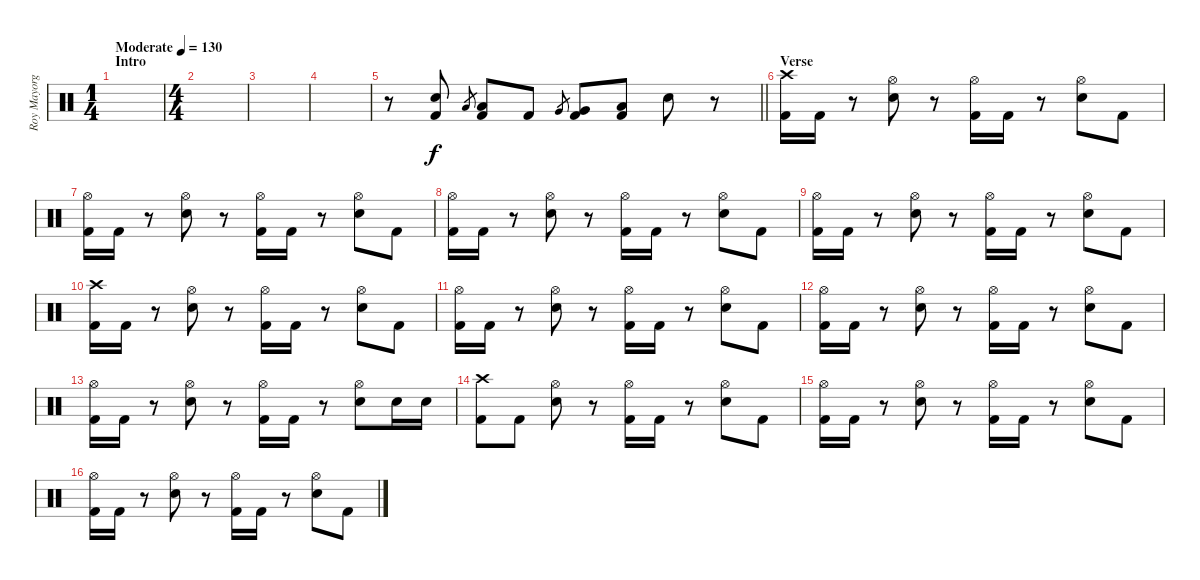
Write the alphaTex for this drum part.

\track ("Roy Mayorga (Drums)" "Roy Mayorg") {instrument percussion}
\staff {score}
\articulation defaults
\ts (1 4)
\section ("" "Intro")
\tempo (130 "Moderate")
\clef neutral
\ks c
|
\ts (4 4)
|
|
|
\barLineRight lightlight
r.8 ("Electric Snare (hit)" "Kick (hit) 2").8 "Low Tom (hit)".8{gr} ("Low Tom (hit)" "Kick (hit) 2").8 "Kick (hit) 2".8 "Very Low Tom (hit)".8{gr} ("Very Low Tom (hit)" "Kick (hit) 2").8 ("Low Floor Tom (hit)" "Kick (hit) 2").8 "Electric Snare (hit)".8 r.8 |
\section ("" "Verse")
("Crash high (hit)" "Kick (hit) 2").16 "Kick (hit) 2".16 r.8 ("Hi-Hat (open)" "Electric Snare (hit)").8 r.8 ("Hi-Hat (open)" "Kick (hit) 2").16 "Kick (hit) 2".16 r.8 ("Hi-Hat (open)" "Electric Snare (hit)").8 "Kick (hit) 2".8 |
("Hi-Hat (open)" "Kick (hit) 2").16 "Kick (hit) 2".16 r.8 ("Hi-Hat (open)" "Electric Snare (hit)").8 r.8 ("Hi-Hat (open)" "Kick (hit) 2").16 "Kick (hit) 2".16 r.8 ("Hi-Hat (open)" "Electric Snare (hit)").8 "Kick (hit) 2".8 |
("Hi-Hat (open)" "Kick (hit) 2").16 "Kick (hit) 2".16 r.8 ("Hi-Hat (open)" "Electric Snare (hit)").8 r.8 ("Hi-Hat (open)" "Kick (hit) 2").16 "Kick (hit) 2".16 r.8 ("Hi-Hat (open)" "Electric Snare (hit)").8 "Kick (hit) 2".8 |
("Hi-Hat (open)" "Kick (hit) 2").16 "Kick (hit) 2".16 r.8 ("Hi-Hat (open)" "Electric Snare (hit)").8 r.8 ("Hi-Hat (open)" "Kick (hit) 2").16 "Kick (hit) 2".16 r.8 ("Hi-Hat (open)" "Electric Snare (hit)").8 "Kick (hit) 2".8 |
("Crash high (hit)" "Kick (hit) 2").16 "Kick (hit) 2".16 r.8 ("Hi-Hat (open)" "Electric Snare (hit)").8 r.8 ("Hi-Hat (open)" "Kick (hit) 2").16 "Kick (hit) 2".16 r.8 ("Hi-Hat (open)" "Electric Snare (hit)").8 "Kick (hit) 2".8 |
("Hi-Hat (open)" "Kick (hit) 2").16 "Kick (hit) 2".16 r.8 ("Hi-Hat (open)" "Electric Snare (hit)").8 r.8 ("Hi-Hat (open)" "Kick (hit) 2").16 "Kick (hit) 2".16 r.8 ("Hi-Hat (open)" "Electric Snare (hit)").8 "Kick (hit) 2".8 |
("Hi-Hat (open)" "Kick (hit) 2").16 "Kick (hit) 2".16 r.8 ("Hi-Hat (open)" "Electric Snare (hit)").8 r.8 ("Hi-Hat (open)" "Kick (hit) 2").16 "Kick (hit) 2".16 r.8 ("Hi-Hat (open)" "Electric Snare (hit)").8 "Kick (hit) 2".8 |
("Hi-Hat (open)" "Kick (hit) 2").16 "Kick (hit) 2".16 r.8 ("Hi-Hat (open)" "Electric Snare (hit)").8 r.8 ("Hi-Hat (open)" "Kick (hit) 2").16 "Kick (hit) 2".16 r.8 ("Hi-Hat (open)" "Electric Snare (hit)").8 "Electric Snare (hit)".16 "Electric Snare (hit)".16 |
("Crash high (hit)" "Kick (hit) 2").8 "Kick (hit) 2".8 ("Hi-Hat (open)" "Electric Snare (hit)").8 r.8 ("Hi-Hat (open)" "Kick (hit) 2").16 "Kick (hit) 2".16 r.8 ("Hi-Hat (open)" "Electric Snare (hit)").8 "Kick (hit) 2".8 |
("Hi-Hat (open)" "Kick (hit) 2").16 "Kick (hit) 2".16 r.8 ("Hi-Hat (open)" "Electric Snare (hit)").8 r.8 ("Hi-Hat (open)" "Kick (hit) 2").16 "Kick (hit) 2".16 r.8 ("Hi-Hat (open)" "Electric Snare (hit)").8 "Kick (hit) 2".8 |
("Hi-Hat (open)" "Kick (hit) 2").16 "Kick (hit) 2".16 r.8 ("Hi-Hat (open)" "Electric Snare (hit)").8 r.8 ("Hi-Hat (open)" "Kick (hit) 2").16 "Kick (hit) 2".16 r.8 ("Hi-Hat (open)" "Electric Snare (hit)").8 "Kick (hit) 2".8
